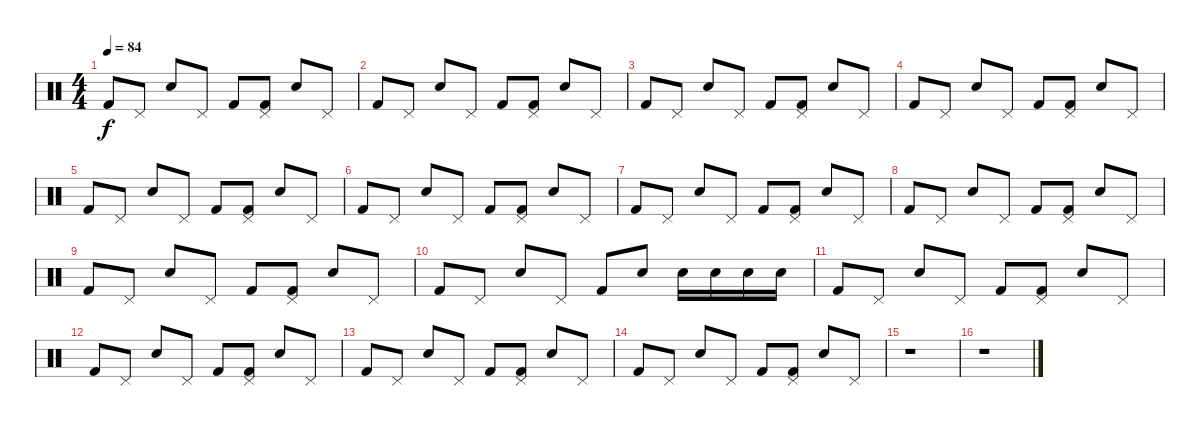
\track "" {instrument percussion}
\staff {score}
\articulation defaults
\ts (4 4)
\tempo 84
\clef neutral
\ks c "Kick (hit) 2".8{dy f} "Pedal Hi-Hat (hit)".8 "Snare (hit) 2".8 "Pedal Hi-Hat (hit)".8 "Kick (hit) 2".8
("Pedal Hi-Hat (hit)" "Kick (hit) 2").8 "Snare (hit) 2".8 "Pedal Hi-Hat (hit)".8 |
"Kick (hit) 2".8 "Pedal Hi-Hat (hit)".8 "Snare (hit) 2".8 "Pedal Hi-Hat (hit)".8 "Kick (hit) 2".8 ("Pedal Hi-Hat (hit)" "Kick (hit) 2").8 "Snare (hit) 2".8 "Pedal Hi-Hat (hit)".8 |
"Kick (hit) 2".8 "Pedal Hi-Hat (hit)".8 "Snare (hit) 2".8 "Pedal Hi-Hat (hit)".8 "Kick (hit) 2".8 ("Pedal Hi-Hat (hit)" "Kick (hit) 2").8 "Snare (hit) 2".8 "Pedal Hi-Hat (hit)".8 |
"Kick (hit) 2".8 "Pedal Hi-Hat (hit)".8 "Snare (hit) 2".8 "Pedal Hi-Hat (hit)".8 "Kick (hit) 2".8 ("Pedal Hi-Hat (hit)" "Kick (hit) 2").8 "Snare (hit) 2".8 "Pedal Hi-Hat (hit)".8 |
"Kick (hit) 2".8 "Pedal Hi-Hat (hit)".8 "Snare (hit) 2".8 "Pedal Hi-Hat (hit)".8 "Kick (hit) 2".8 ("Pedal Hi-Hat (hit)" "Kick (hit) 2").8 "Snare (hit) 2".8 "Pedal Hi-Hat (hit)".8 |
"Kick (hit) 2".8 "Pedal Hi-Hat (hit)".8 "Snare (hit) 2".8 "Pedal Hi-Hat (hit)".8 "Kick (hit) 2".8 ("Pedal Hi-Hat (hit)" "Kick (hit) 2").8 "Snare (hit) 2".8 "Pedal Hi-Hat (hit)".8 |
"Kick (hit) 2".8 "Pedal Hi-Hat (hit)".8 "Snare (hit) 2".8 "Pedal Hi-Hat (hit)".8 "Kick (hit) 2".8 ("Pedal Hi-Hat (hit)" "Kick (hit) 2").8 "Snare (hit) 2".8 "Pedal Hi-Hat (hit)".8 |
"Kick (hit) 2".8 "Pedal Hi-Hat (hit)".8 "Snare (hit) 2".8 "Pedal Hi-Hat (hit)".8 "Kick (hit) 2".8 ("Pedal Hi-Hat (hit)" "Kick (hit) 2").8 "Snare (hit) 2".8 "Pedal Hi-Hat (hit)".8 |
"Kick (hit) 2".8{txt ""} "Pedal Hi-Hat (hit)".8 "Snare (hit) 2".8 "Pedal Hi-Hat (hit)".8 "Kick (hit) 2".8 ("Pedal Hi-Hat (hit)" "Kick (hit) 2").8 "Snare (hit) 2".8 "Pedal Hi-Hat (hit)".8 |
"Kick (hit) 2".8 "Pedal Hi-Hat (hit)".8 "Snare (hit) 2".8 "Pedal Hi-Hat (hit)".8 "Kick (hit) 2".8 "Electric Snare (hit)".8 "Electric Snare (hit)".16 "Electric Snare (hit)".16 "Electric Snare (hit)".16 "Electric Snare (hit)".16 |
"Kick (hit) 2".8 "Pedal Hi-Hat (hit)".8 "Snare (hit) 2".8 "Pedal Hi-Hat (hit)".8 "Kick (hit) 2".8 ("Pedal Hi-Hat (hit)" "Kick (hit) 2").8 "Snare (hit) 2".8 "Pedal Hi-Hat (hit)".8 |
"Kick (hit) 2".8 "Pedal Hi-Hat (hit)".8 "Snare (hit) 2".8 "Pedal Hi-Hat (hit)".8 "Kick (hit) 2".8 ("Pedal Hi-Hat (hit)" "Kick (hit) 2").8 "Snare (hit) 2".8 "Pedal Hi-Hat (hit)".8 |
"Kick (hit) 2".8 "Pedal Hi-Hat (hit)".8 "Snare (hit) 2".8 "Pedal Hi-Hat (hit)".8 "Kick (hit) 2".8 ("Pedal Hi-Hat (hit)" "Kick (hit) 2").8 "Snare (hit) 2".8 "Pedal Hi-Hat (hit)".8 |
"Kick (hit) 2".8 "Pedal Hi-Hat (hit)".8 "Snare (hit) 2".8 "Pedal Hi-Hat (hit)".8 "Kick (hit) 2".8 ("Pedal Hi-Hat (hit)" "Kick (hit) 2").8 "Snare (hit) 2".8 "Pedal Hi-Hat (hit)".8 |
r.1 |
r.1
